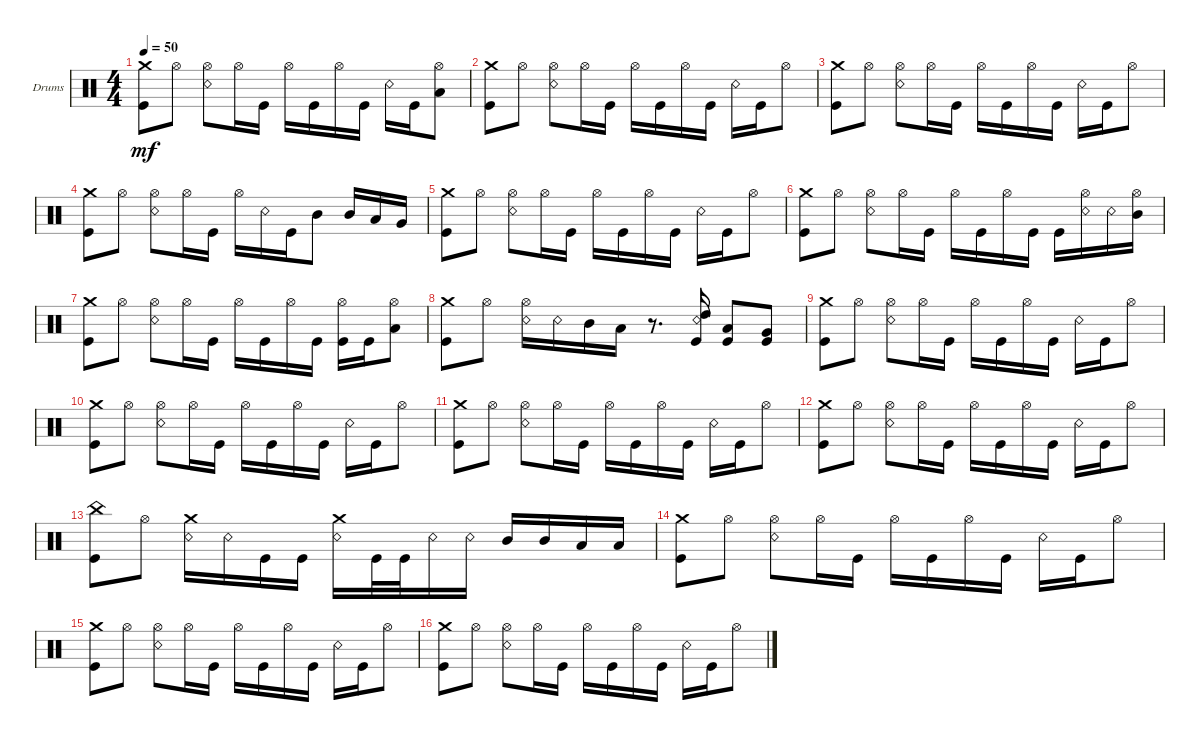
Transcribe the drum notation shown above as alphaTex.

\defaultSystemsLayout 4
\bracketExtendMode groupsimilarinstruments
\firstSystemTrackNameOrientation horizontal
\otherSystemsTrackNameOrientation horizontal
\track ("Илья" "Drums") {instrument percussion}
\staff {score}
\articulation defaults
\ts (4 4)
\tempo 50
\clef neutral
\ks c
("Crash medium (hit)" "Kick (hit)").8{dy mf} "Hi-Hat (open)".8 ("Hi-Hat (open)" "Snare (rim shot)").8 "Hi-Hat (open)".16 "Kick (hit)".16 "Hi-Hat (open)".16 "Kick (hit)".16 "Hi-Hat (open)".16 "Kick (hit)".16 "Snare (rim shot)".16 "Kick (hit)".16 ("Low Tom (hit)" "Hi-Hat (open)").8 |
("Crash medium (hit)" "Kick (hit)").8 "Hi-Hat (open)".8 ("Snare (rim shot)" "Hi-Hat (open)").8 "Hi-Hat (open)".16 "Kick (hit)".16 "Hi-Hat (open)".16 "Kick (hit)".16 "Hi-Hat (open)".16 "Kick (hit)".16 "Snare (rim shot)".16 "Kick (hit)".16 "Hi-Hat (open)".8 |
("Crash medium (hit)" "Kick (hit)").8 "Hi-Hat (open)".8 ("Snare (rim shot)" "Hi-Hat (open)").8 "Hi-Hat (open)".16 "Kick (hit)".16 "Hi-Hat (open)".16 "Kick (hit)".16 "Hi-Hat (open)".16 "Kick (hit)".16 "Snare (rim shot)".16 "Kick (hit)".16 "Hi-Hat (open)".8 |
("Crash medium (hit)" "Kick (hit)").8 "Hi-Hat (open)".8 ("Hi-Hat (open)" "Snare (rim shot)").8 "Hi-Hat (open)".16 "Kick (hit)".16 "Hi-Hat (open)".16 "Snare (rim shot)".16 "Kick (hit)".16 "Mid Tom (hit)".8 "Mid Tom (hit)".16 "Low Tom (hit)".16 "Very Low Tom (hit)".16 |
("Crash medium (hit)" "Kick (hit)").8 "Hi-Hat (open)".8 ("Snare (rim shot)" "Hi-Hat (open)").8 "Hi-Hat (open)".16 "Kick (hit)".16 "Hi-Hat (open)".16 "Kick (hit)".16 "Hi-Hat (open)".16 "Kick (hit)".16 "Snare (rim shot)".16 "Kick (hit)".16 "Hi-Hat (open)".8 |
("Crash medium (hit)" "Kick (hit)").8 "Hi-Hat (open)".8 ("Hi-Hat (open)" "Snare (rim shot)").8 "Hi-Hat (open)".16 "Kick (hit)".16 "Hi-Hat (open)".16 "Kick (hit)".16 "Hi-Hat (open)".16 "Kick (hit)".16 "Kick (hit)".16 ("Snare (rim shot)" "Hi-Hat (open)").16 "Snare (rim shot)".16 ("Mid Tom (hit)" "Hi-Hat (open)").16 |
("Crash medium (hit)" "Kick (hit)").8 "Hi-Hat (open)".8 ("Hi-Hat (open)" "Snare (rim shot)").8 "Hi-Hat (open)".16 "Kick (hit)".16 "Hi-Hat (open)".16 "Kick (hit)".16 "Hi-Hat (open)".16 "Kick (hit)".16 ("Kick (hit)" "Hi-Hat (open)").16 "Kick (hit)".16 ("Low Tom (hit)" "Hi-Hat (open)").8 |
("Crash medium (hit)" "Kick (hit)").8 "Hi-Hat (open)".8 ("Hi-Hat (open)" "Snare (rim shot)").16 "Snare (rim shot)".16 "Mid Tom (hit)".16 "Low Tom (hit)".16 r.8{d} ("Snare (rim shot)" "Kick (hit)" "High Tom (hit)").16 ("Kick (hit)" "Low Tom (hit)").8 ("Kick (hit)" "Very Low Tom (hit)").8 |
("Crash medium (hit)" "Kick (hit)").8 "Hi-Hat (open)".8 ("Snare (rim shot)" "Hi-Hat (open)").8 "Hi-Hat (open)".16 "Kick (hit)".16 "Hi-Hat (open)".16 "Kick (hit)".16 "Hi-Hat (open)".16 "Kick (hit)".16 "Snare (rim shot)".16 "Kick (hit)".16 "Hi-Hat (open)".8 |
("Crash medium (hit)" "Kick (hit)").8 "Hi-Hat (open)".8 ("Snare (rim shot)" "Hi-Hat (open)").8 "Hi-Hat (open)".16 "Kick (hit)".16 "Hi-Hat (open)".16 "Kick (hit)".16 "Hi-Hat (open)".16 "Kick (hit)".16 "Snare (rim shot)".16 "Kick (hit)".16 "Hi-Hat (open)".8 |
("Crash medium (hit)" "Kick (hit)").8 "Hi-Hat (open)".8 ("Snare (rim shot)" "Hi-Hat (open)").8 "Hi-Hat (open)".16 "Kick (hit)".16 "Hi-Hat (open)".16 "Kick (hit)".16 "Hi-Hat (open)".16 "Kick (hit)".16 "Snare (rim shot)".16 "Kick (hit)".16 "Hi-Hat (open)".8 |
("Crash medium (hit)" "Kick (hit)").8 "Hi-Hat (open)".8 ("Snare (rim shot)" "Hi-Hat (open)").8 "Hi-Hat (open)".16 "Kick (hit)".16 "Hi-Hat (open)".16 "Kick (hit)".16 "Hi-Hat (open)".16 "Kick (hit)".16 "Snare (rim shot)".16 "Kick (hit)".16 "Hi-Hat (open)".8 |
("Kick (hit)" "China (hit)").8 "Hi-Hat (open)".8 ("Snare (rim shot)" "Crash medium (hit)").16 "Snare (rim shot)".16 "Kick (hit)".16 "Kick (hit)".16 ("Snare (rim shot)" "Crash medium (hit)").16 "Kick (hit)".32 "Kick (hit)".32 "Snare (rim shot)".16 "Snare (rim shot)".16 "Mid Tom (hit)".16 "Mid Tom (hit)".16 "Low Tom (hit)".16 "Low Tom (hit)".16 |
("Crash medium (hit)" "Kick (hit)").8 "Hi-Hat (open)".8 ("Snare (rim shot)" "Hi-Hat (open)").8 "Hi-Hat (open)".16 "Kick (hit)".16 "Hi-Hat (open)".16 "Kick (hit)".16 "Hi-Hat (open)".16 "Kick (hit)".16 "Snare (rim shot)".16 "Kick (hit)".16 "Hi-Hat (open)".8 |
("Crash medium (hit)" "Kick (hit)").8 "Hi-Hat (open)".8 ("Snare (rim shot)" "Hi-Hat (open)").8 "Hi-Hat (open)".16 "Kick (hit)".16 "Hi-Hat (open)".16 "Kick (hit)".16 "Hi-Hat (open)".16 "Kick (hit)".16 "Snare (rim shot)".16 "Kick (hit)".16 "Hi-Hat (open)".8 |
("Crash medium (hit)" "Kick (hit)").8 "Hi-Hat (open)".8 ("Snare (rim shot)" "Hi-Hat (open)").8 "Hi-Hat (open)".16 "Kick (hit)".16 "Hi-Hat (open)".16 "Kick (hit)".16 "Hi-Hat (open)".16 "Kick (hit)".16 "Snare (rim shot)".16 "Kick (hit)".16 "Hi-Hat (open)".8
